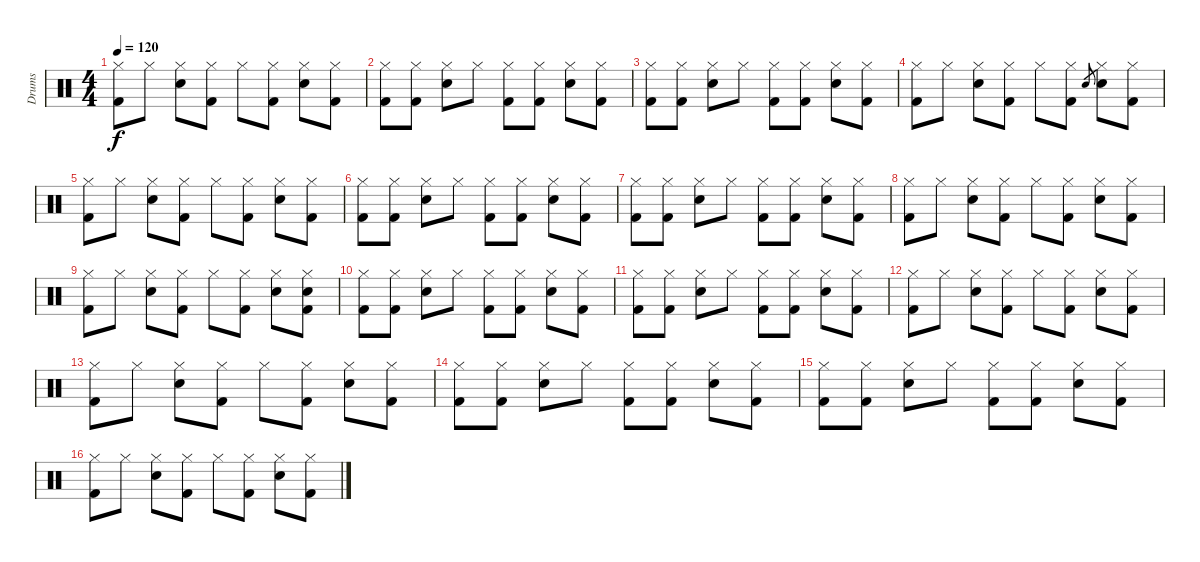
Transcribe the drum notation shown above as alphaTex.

\track ("Drums" "Drums") {instrument percussion}
\staff {score}
\articulation defaults
\ts (4 4)
\tempo 120
\clef neutral
\ks c
("Hi-Hat (closed)" "Kick (hit) 2").8{dy f} "Hi-Hat (closed)".8 ("Hi-Hat (closed)" "Electric Snare (hit)").8 ("Hi-Hat (closed)" "Kick (hit) 2").8 "Hi-Hat (closed)".8 ("Hi-Hat (closed)" "Kick (hit) 2").8 ("Hi-Hat (closed)" "Electric Snare (hit)").8 ("Hi-Hat (closed)" "Kick (hit) 2").8 |
("Hi-Hat (closed)" "Kick (hit) 2").8 ("Hi-Hat (closed)" "Kick (hit) 2").8 ("Hi-Hat (closed)" "Electric Snare (hit)").8 "Hi-Hat (closed)".8 ("Hi-Hat (closed)" "Kick (hit) 2").8 ("Hi-Hat (closed)" "Kick (hit) 2").8 ("Hi-Hat (closed)" "Electric Snare (hit)").8 ("Hi-Hat (closed)" "Kick (hit) 2").8 |
("Hi-Hat (closed)" "Kick (hit) 2").8 ("Hi-Hat (closed)" "Kick (hit) 2").8 ("Hi-Hat (closed)" "Electric Snare (hit)").8 "Hi-Hat (closed)".8 ("Hi-Hat (closed)" "Kick (hit) 2").8 ("Hi-Hat (closed)" "Kick (hit) 2").8 ("Hi-Hat (closed)" "Electric Snare (hit)").8 ("Hi-Hat (closed)" "Kick (hit) 2").8 |
("Hi-Hat (closed)" "Kick (hit) 2").8 "Hi-Hat (closed)".8 ("Hi-Hat (closed)" "Electric Snare (hit)").8 ("Hi-Hat (closed)" "Kick (hit) 2").8 "Hi-Hat (closed)".8 ("Hi-Hat (closed)" "Kick (hit) 2").8 "Electric Snare (hit)".8{gr} ("Hi-Hat (closed)" "Electric Snare (hit)").8 ("Hi-Hat (closed)" "Kick (hit) 2").8 |
("Hi-Hat (closed)" "Kick (hit) 2").8 "Hi-Hat (closed)".8 ("Hi-Hat (closed)" "Electric Snare (hit)").8 ("Hi-Hat (closed)" "Kick (hit) 2").8 "Hi-Hat (closed)".8 ("Hi-Hat (closed)" "Kick (hit) 2").8 ("Hi-Hat (closed)" "Electric Snare (hit)").8 ("Hi-Hat (closed)" "Kick (hit) 2").8 |
("Hi-Hat (closed)" "Kick (hit) 2").8 ("Hi-Hat (closed)" "Kick (hit) 2").8 ("Hi-Hat (closed)" "Electric Snare (hit)").8 "Hi-Hat (closed)".8 ("Hi-Hat (closed)" "Kick (hit) 2").8 ("Hi-Hat (closed)" "Kick (hit) 2").8 ("Hi-Hat (closed)" "Electric Snare (hit)").8 ("Hi-Hat (closed)" "Kick (hit) 2").8 |
("Hi-Hat (closed)" "Kick (hit) 2").8 ("Hi-Hat (closed)" "Kick (hit) 2").8 ("Hi-Hat (closed)" "Electric Snare (hit)").8 "Hi-Hat (closed)".8 ("Hi-Hat (closed)" "Kick (hit) 2").8 ("Hi-Hat (closed)" "Kick (hit) 2").8 ("Hi-Hat (closed)" "Electric Snare (hit)").8 ("Hi-Hat (closed)" "Kick (hit) 2").8 |
("Hi-Hat (closed)" "Kick (hit) 2").8 "Hi-Hat (closed)".8 ("Hi-Hat (closed)" "Electric Snare (hit)").8 ("Hi-Hat (closed)" "Kick (hit) 2").8 "Hi-Hat (closed)".8 ("Hi-Hat (closed)" "Kick (hit) 2").8 ("Hi-Hat (closed)" "Electric Snare (hit)").8 ("Hi-Hat (closed)" "Kick (hit) 2").8 |
("Hi-Hat (closed)" "Kick (hit) 2").8 "Hi-Hat (closed)".8 ("Hi-Hat (closed)" "Electric Snare (hit)").8 ("Hi-Hat (closed)" "Kick (hit) 2").8 "Hi-Hat (closed)".8 ("Hi-Hat (closed)" "Kick (hit) 2").8 ("Hi-Hat (closed)" "Electric Snare (hit)").8 ("Hi-Hat (closed)" "Electric Snare (hit)" "Kick (hit) 2").8 |
("Hi-Hat (closed)" "Kick (hit) 2").8 ("Hi-Hat (closed)" "Kick (hit) 2").8 ("Hi-Hat (closed)" "Electric Snare (hit)").8 "Hi-Hat (closed)".8 ("Hi-Hat (closed)" "Kick (hit) 2").8 ("Hi-Hat (closed)" "Kick (hit) 2").8 ("Hi-Hat (closed)" "Electric Snare (hit)").8 ("Hi-Hat (closed)" "Kick (hit) 2").8 |
("Hi-Hat (closed)" "Kick (hit) 2").8 ("Hi-Hat (closed)" "Kick (hit) 2").8 ("Hi-Hat (closed)" "Electric Snare (hit)").8 "Hi-Hat (closed)".8 ("Hi-Hat (closed)" "Kick (hit) 2").8 ("Hi-Hat (closed)" "Kick (hit) 2").8 ("Hi-Hat (closed)" "Electric Snare (hit)").8 ("Hi-Hat (closed)" "Kick (hit) 2").8 |
("Hi-Hat (closed)" "Kick (hit) 2").8 "Hi-Hat (closed)".8 ("Hi-Hat (closed)" "Electric Snare (hit)").8 ("Hi-Hat (closed)" "Kick (hit) 2").8 "Hi-Hat (closed)".8 ("Hi-Hat (closed)" "Kick (hit) 2").8 ("Hi-Hat (closed)" "Electric Snare (hit)").8 ("Hi-Hat (closed)" "Kick (hit) 2").8 |
("Hi-Hat (closed)" "Kick (hit) 2").8 "Hi-Hat (closed)".8 ("Hi-Hat (closed)" "Electric Snare (hit)").8 ("Hi-Hat (closed)" "Kick (hit) 2").8 "Hi-Hat (closed)".8 ("Hi-Hat (closed)" "Kick (hit) 2").8 ("Hi-Hat (closed)" "Electric Snare (hit)").8 ("Hi-Hat (closed)" "Kick (hit) 2").8 |
("Hi-Hat (closed)" "Kick (hit) 2").8 ("Hi-Hat (closed)" "Kick (hit) 2").8 ("Hi-Hat (closed)" "Electric Snare (hit)").8 "Hi-Hat (closed)".8 ("Hi-Hat (closed)" "Kick (hit) 2").8 ("Hi-Hat (closed)" "Kick (hit) 2").8 ("Hi-Hat (closed)" "Electric Snare (hit)").8 ("Hi-Hat (closed)" "Kick (hit) 2").8 |
("Hi-Hat (closed)" "Kick (hit) 2").8 ("Hi-Hat (closed)" "Kick (hit) 2").8 ("Hi-Hat (closed)" "Electric Snare (hit)").8 "Hi-Hat (closed)".8 ("Hi-Hat (closed)" "Kick (hit) 2").8 ("Hi-Hat (closed)" "Kick (hit) 2").8 ("Hi-Hat (closed)" "Electric Snare (hit)").8 ("Hi-Hat (closed)" "Kick (hit) 2").8 |
("Hi-Hat (closed)" "Kick (hit) 2").8 "Hi-Hat (closed)".8 ("Hi-Hat (closed)" "Electric Snare (hit)").8 ("Hi-Hat (closed)" "Kick (hit) 2").8 "Hi-Hat (closed)".8 ("Hi-Hat (closed)" "Kick (hit) 2").8 ("Hi-Hat (closed)" "Electric Snare (hit)").8 ("Hi-Hat (closed)" "Kick (hit) 2").8
